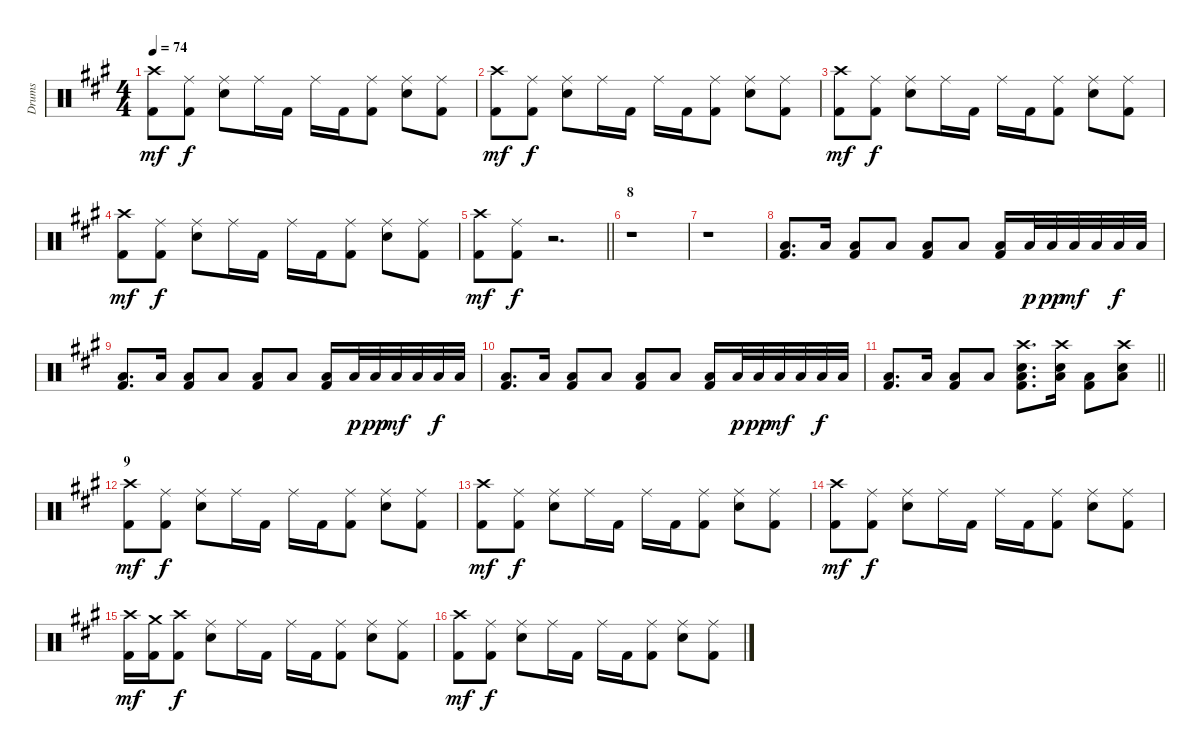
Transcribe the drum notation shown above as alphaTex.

\track ("Drums" "Drums") {instrument percussion}
\staff {score}
\articulation defaults
\ts (4 4)
\tempo 74
\clef neutral
\ks a
("Kick (hit) 2" "Crash high (hit)").8{dy mf} ("Kick (hit) 2" "Ride (middle)").8{dy f} ("Ride (middle)" "Electric Snare (hit)").8 "Ride (middle)".16 "Kick (hit) 2".16 "Ride (middle)".16 "Kick (hit) 2".16 ("Kick (hit) 2" "Ride (middle)").8 ("Electric Snare (hit)" "Ride (middle)").8 ("Ride (middle)" "Kick (hit) 2").8 |
("Kick (hit) 2" "Crash high (hit)").8{dy mf} ("Kick (hit) 2" "Ride (middle)").8{dy f} ("Ride (middle)" "Electric Snare (hit)").8 "Ride (middle)".16 "Kick (hit) 2".16 "Ride (middle)".16 "Kick (hit) 2".16 ("Kick (hit) 2" "Ride (middle)").8 ("Electric Snare (hit)" "Ride (middle)").8 ("Ride (middle)" "Kick (hit) 2").8 |
("Kick (hit) 2" "Crash high (hit)").8{dy mf} ("Kick (hit) 2" "Ride (middle)").8{dy f} ("Ride (middle)" "Electric Snare (hit)").8 "Ride (middle)".16 "Kick (hit) 2".16 "Ride (middle)".16 "Kick (hit) 2".16 ("Kick (hit) 2" "Ride (middle)").8 ("Electric Snare (hit)" "Ride (middle)").8 ("Ride (middle)" "Kick (hit) 2").8 |
("Kick (hit) 2" "Crash high (hit)").8{dy mf} ("Kick (hit) 2" "Ride (middle)").8{dy f} ("Ride (middle)" "Electric Snare (hit)").8 "Ride (middle)".16 "Kick (hit) 2".16 "Ride (middle)".16 "Kick (hit) 2".16 ("Kick (hit) 2" "Ride (middle)").8 ("Electric Snare (hit)" "Ride (middle)").8 ("Ride (middle)" "Kick (hit) 2").8 |
\barLineRight lightlight
("Kick (hit) 2" "Crash high (hit)").8{dy mf} ("Kick (hit) 2" "Ride (middle)").8{dy f} r.2{d} |
\section ("" "8")
r.1 |
r.1 |
("Low Floor Tom (hit)" "Kick (hit) 2").8{d} "Low Floor Tom (hit)".16 ("Low Floor Tom (hit)" "Kick (hit) 2").8 "Low Floor Tom (hit)".8 ("Kick (hit) 2" "Low Floor Tom (hit)").8 "Low Floor Tom (hit)".8 ("Kick (hit) 2" "Low Floor Tom (hit)").16 "Low Floor Tom (hit)".32{dy p} "Low Floor Tom (hit)".32{dy pp} "Low Floor Tom (hit)".32{dy mf} "Low Floor Tom (hit)".32 "Low Floor Tom (hit)".32{dy f} "Low Floor Tom (hit)".32 |
("Low Floor Tom (hit)" "Kick (hit) 2").8{d} "Low Floor Tom (hit)".16 ("Low Floor Tom (hit)" "Kick (hit) 2").8 "Low Floor Tom (hit)".8 ("Kick (hit) 2" "Low Floor Tom (hit)").8 "Low Floor Tom (hit)".8 ("Kick (hit) 2" "Low Floor Tom (hit)").16 "Low Floor Tom (hit)".32{dy p} "Low Floor Tom (hit)".32{dy pp} "Low Floor Tom (hit)".32{dy mf} "Low Floor Tom (hit)".32 "Low Floor Tom (hit)".32{dy f} "Low Floor Tom (hit)".32 |
("Low Floor Tom (hit)" "Kick (hit) 2").8{d} "Low Floor Tom (hit)".16 ("Low Floor Tom (hit)" "Kick (hit) 2").8 "Low Floor Tom (hit)".8 ("Kick (hit) 2" "Low Floor Tom (hit)").8 "Low Floor Tom (hit)".8 ("Kick (hit) 2" "Low Floor Tom (hit)").16 "Low Floor Tom (hit)".32{dy p} "Low Floor Tom (hit)".32{dy pp} "Low Floor Tom (hit)".32{dy mf} "Low Floor Tom (hit)".32 "Low Floor Tom (hit)".32{dy f} "Low Floor Tom (hit)".32 |
\barLineRight lightlight
("Low Floor Tom (hit)" "Kick (hit) 2").8{d} "Low Floor Tom (hit)".16 ("Low Floor Tom (hit)" "Kick (hit) 2").8 "Low Floor Tom (hit)".8 ("Low Floor Tom (hit)" "Kick (hit) 2" "Crash high (hit)" "Electric Snare (hit)").8{d} ("Electric Snare (hit)" "Crash high (hit)" "Low Floor Tom (hit)").16 ("Low Floor Tom (hit)" "Kick (hit) 2").8 ("Electric Snare (hit)" "Crash high (hit)" "Low Floor Tom (hit)").8 |
\section ("" "9")
("Kick (hit) 2" "Crash high (hit)").8{dy mf} ("Kick (hit) 2" "Ride (middle)").8{dy f} ("Ride (middle)" "Electric Snare (hit)").8 "Ride (middle)".16 "Kick (hit) 2".16 "Ride (middle)".16 "Kick (hit) 2".16 ("Kick (hit) 2" "Ride (middle)").8 ("Electric Snare (hit)" "Ride (middle)").8 ("Ride (middle)" "Kick (hit) 2").8 |
("Kick (hit) 2" "Crash high (hit)").8{dy mf} ("Kick (hit) 2" "Ride (middle)").8{dy f} ("Ride (middle)" "Electric Snare (hit)").8 "Ride (middle)".16 "Kick (hit) 2".16 "Ride (middle)".16 "Kick (hit) 2".16 ("Kick (hit) 2" "Ride (middle)").8 ("Electric Snare (hit)" "Ride (middle)").8 ("Ride (middle)" "Kick (hit) 2").8 |
("Kick (hit) 2" "Crash high (hit)").8{dy mf} ("Kick (hit) 2" "Ride (middle)").8{dy f} ("Ride (middle)" "Electric Snare (hit)").8 "Ride (middle)".16 "Kick (hit) 2".16 "Ride (middle)".16 "Kick (hit) 2".16 ("Kick (hit) 2" "Ride (middle)").8 ("Electric Snare (hit)" "Ride (middle)").8 ("Ride (middle)" "Kick (hit) 2").8 |
("Kick (hit) 2" "Crash high (hit)").16{dy mf} ("Kick (hit) 2" "Crash medium (hit)").16 ("Kick (hit) 2" "Crash high (hit)").8{dy f} ("Ride (middle)" "Electric Snare (hit)").8 "Ride (middle)".16 "Kick (hit) 2".16 "Ride (middle)".16 "Kick (hit) 2".16 ("Kick (hit) 2" "Ride (middle)").8 ("Electric Snare (hit)" "Ride (middle)").8 ("Ride (middle)" "Kick (hit) 2").8 |
("Kick (hit) 2" "Crash high (hit)").8{dy mf} ("Kick (hit) 2" "Ride (middle)").8{dy f} ("Ride (middle)" "Electric Snare (hit)").8 "Ride (middle)".16 "Kick (hit) 2".16 "Ride (middle)".16 "Kick (hit) 2".16 ("Kick (hit) 2" "Ride (middle)").8 ("Electric Snare (hit)" "Ride (middle)").8 ("Ride (middle)" "Kick (hit) 2").8
